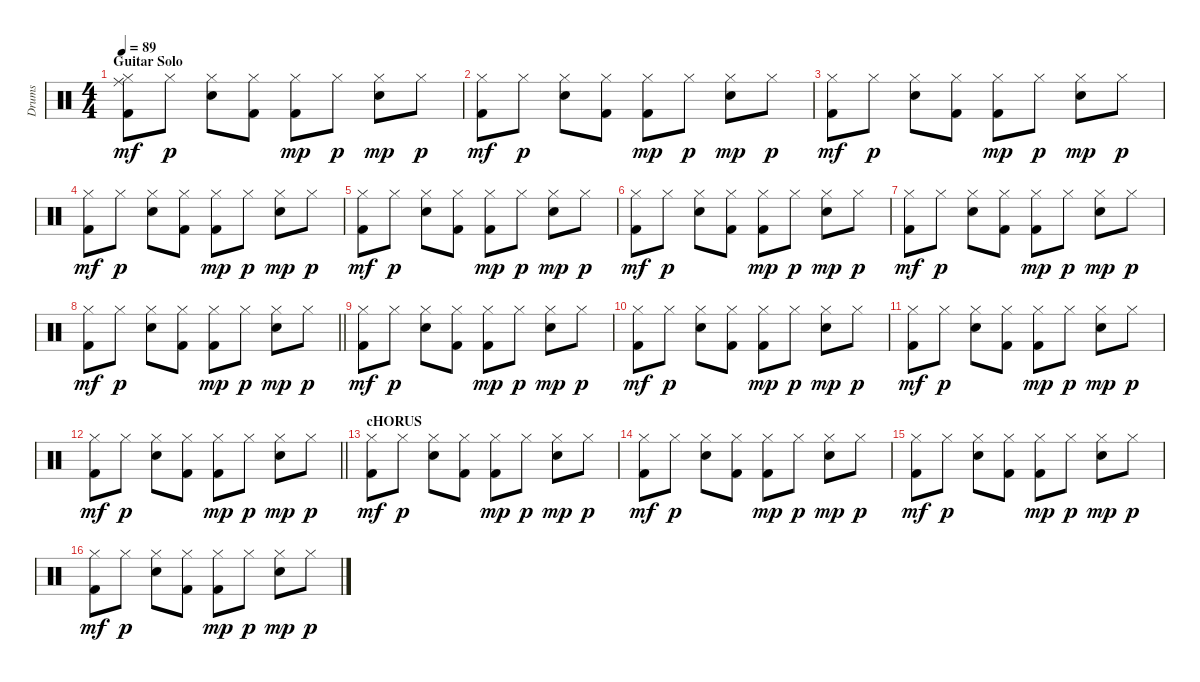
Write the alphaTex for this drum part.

\track ("Drums" "Drums") {instrument percussion}
\staff {score}
\articulation defaults
\ts (4 4)
\section ("" "Guitar Solo")
\tempo 89
\clef neutral
\ks c
("Hi-Hat (closed)" "Kick (hit) 2" "Ride (middle)").8{dy mf} "Hi-Hat (closed)".8{dy p} ("Snare (hit) 2" "Hi-Hat (closed)").8 ("Kick (hit) 2" "Hi-Hat (closed)").8 ("Kick (hit) 2" "Hi-Hat (closed)").8{dy mp} "Hi-Hat (closed)".8{dy p} ("Snare (hit) 2" "Hi-Hat (closed)").8{dy mp} "Hi-Hat (closed)".8{dy p} |
("Hi-Hat (closed)" "Kick (hit) 2").8{dy mf} "Hi-Hat (closed)".8{dy p} ("Snare (hit) 2" "Hi-Hat (closed)").8 ("Kick (hit) 2" "Hi-Hat (closed)").8 ("Kick (hit) 2" "Hi-Hat (closed)").8{dy mp} "Hi-Hat (closed)".8{dy p} ("Snare (hit) 2" "Hi-Hat (closed)").8{dy mp} "Hi-Hat (closed)".8{dy p} |
("Hi-Hat (closed)" "Kick (hit) 2").8{dy mf} "Hi-Hat (closed)".8{dy p} ("Snare (hit) 2" "Hi-Hat (closed)").8 ("Kick (hit) 2" "Hi-Hat (closed)").8 ("Kick (hit) 2" "Hi-Hat (closed)").8{dy mp} "Hi-Hat (closed)".8{dy p} ("Snare (hit) 2" "Hi-Hat (closed)").8{dy mp} "Hi-Hat (closed)".8{dy p} |
("Hi-Hat (closed)" "Kick (hit) 2").8{dy mf} "Hi-Hat (closed)".8{dy p} ("Snare (hit) 2" "Hi-Hat (closed)").8 ("Kick (hit) 2" "Hi-Hat (closed)").8 ("Kick (hit) 2" "Hi-Hat (closed)").8{dy mp} "Hi-Hat (closed)".8{dy p} ("Snare (hit) 2" "Hi-Hat (closed)").8{dy mp} "Hi-Hat (closed)".8{dy p} |
("Hi-Hat (closed)" "Kick (hit) 2").8{dy mf} "Hi-Hat (closed)".8{dy p} ("Snare (hit) 2" "Hi-Hat (closed)").8 ("Kick (hit) 2" "Hi-Hat (closed)").8 ("Kick (hit) 2" "Hi-Hat (closed)").8{dy mp} "Hi-Hat (closed)".8{dy p} ("Snare (hit) 2" "Hi-Hat (closed)").8{dy mp} "Hi-Hat (closed)".8{dy p} |
("Hi-Hat (closed)" "Kick (hit) 2").8{dy mf} "Hi-Hat (closed)".8{dy p} ("Snare (hit) 2" "Hi-Hat (closed)").8 ("Kick (hit) 2" "Hi-Hat (closed)").8 ("Kick (hit) 2" "Hi-Hat (closed)").8{dy mp} "Hi-Hat (closed)".8{dy p} ("Snare (hit) 2" "Hi-Hat (closed)").8{dy mp} "Hi-Hat (closed)".8{dy p} |
("Hi-Hat (closed)" "Kick (hit) 2").8{dy mf} "Hi-Hat (closed)".8{dy p} ("Snare (hit) 2" "Hi-Hat (closed)").8 ("Kick (hit) 2" "Hi-Hat (closed)").8 ("Kick (hit) 2" "Hi-Hat (closed)").8{dy mp} "Hi-Hat (closed)".8{dy p} ("Snare (hit) 2" "Hi-Hat (closed)").8{dy mp} "Hi-Hat (closed)".8{dy p} |
\barLineRight lightlight
("Hi-Hat (closed)" "Kick (hit) 2").8{dy mf} "Hi-Hat (closed)".8{dy p} ("Snare (hit) 2" "Hi-Hat (closed)").8 ("Kick (hit) 2" "Hi-Hat (closed)").8 ("Kick (hit) 2" "Hi-Hat (closed)").8{dy mp} "Hi-Hat (closed)".8{dy p} ("Snare (hit) 2" "Hi-Hat (closed)").8{dy mp} "Hi-Hat (closed)".8{dy p} |
("Hi-Hat (closed)" "Kick (hit) 2").8{dy mf} "Hi-Hat (closed)".8{dy p} ("Snare (hit) 2" "Hi-Hat (closed)").8 ("Kick (hit) 2" "Hi-Hat (closed)").8 ("Kick (hit) 2" "Hi-Hat (closed)").8{dy mp} "Hi-Hat (closed)".8{dy p} ("Snare (hit) 2" "Hi-Hat (closed)").8{dy mp} "Hi-Hat (closed)".8{dy p} |
("Hi-Hat (closed)" "Kick (hit) 2").8{dy mf} "Hi-Hat (closed)".8{dy p} ("Snare (hit) 2" "Hi-Hat (closed)").8 ("Kick (hit) 2" "Hi-Hat (closed)").8 ("Kick (hit) 2" "Hi-Hat (closed)").8{dy mp} "Hi-Hat (closed)".8{dy p} ("Snare (hit) 2" "Hi-Hat (closed)").8{dy mp} "Hi-Hat (closed)".8{dy p} |
("Hi-Hat (closed)" "Kick (hit) 2").8{dy mf} "Hi-Hat (closed)".8{dy p} ("Snare (hit) 2" "Hi-Hat (closed)").8 ("Kick (hit) 2" "Hi-Hat (closed)").8 ("Kick (hit) 2" "Hi-Hat (closed)").8{dy mp} "Hi-Hat (closed)".8{dy p} ("Snare (hit) 2" "Hi-Hat (closed)").8{dy mp} "Hi-Hat (closed)".8{dy p} |
\barLineRight lightlight
("Hi-Hat (closed)" "Kick (hit) 2").8{dy mf} "Hi-Hat (closed)".8{dy p} ("Snare (hit) 2" "Hi-Hat (closed)").8 ("Kick (hit) 2" "Hi-Hat (closed)").8 ("Kick (hit) 2" "Hi-Hat (closed)").8{dy mp} "Hi-Hat (closed)".8{dy p} ("Snare (hit) 2" "Hi-Hat (closed)").8{dy mp} "Hi-Hat (closed)".8{dy p} |
\section ("" "cHORUS")
("Hi-Hat (closed)" "Kick (hit) 2").8{dy mf} "Hi-Hat (closed)".8{dy p} ("Snare (hit) 2" "Hi-Hat (closed)").8 ("Kick (hit) 2" "Hi-Hat (closed)").8 ("Kick (hit) 2" "Hi-Hat (closed)").8{dy mp} "Hi-Hat (closed)".8{dy p} ("Snare (hit) 2" "Hi-Hat (closed)").8{dy mp} "Hi-Hat (closed)".8{dy p} |
("Hi-Hat (closed)" "Kick (hit) 2").8{dy mf} "Hi-Hat (closed)".8{dy p} ("Snare (hit) 2" "Hi-Hat (closed)").8 ("Kick (hit) 2" "Hi-Hat (closed)").8 ("Kick (hit) 2" "Hi-Hat (closed)").8{dy mp} "Hi-Hat (closed)".8{dy p} ("Snare (hit) 2" "Hi-Hat (closed)").8{dy mp} "Hi-Hat (closed)".8{dy p} |
("Hi-Hat (closed)" "Kick (hit) 2").8{dy mf} "Hi-Hat (closed)".8{dy p} ("Snare (hit) 2" "Hi-Hat (closed)").8 ("Kick (hit) 2" "Hi-Hat (closed)").8 ("Kick (hit) 2" "Hi-Hat (closed)").8{dy mp} "Hi-Hat (closed)".8{dy p} ("Snare (hit) 2" "Hi-Hat (closed)").8{dy mp} "Hi-Hat (closed)".8{dy p} |
("Hi-Hat (closed)" "Kick (hit) 2").8{dy mf} "Hi-Hat (closed)".8{dy p} ("Snare (hit) 2" "Hi-Hat (closed)").8 ("Kick (hit) 2" "Hi-Hat (closed)").8 ("Kick (hit) 2" "Hi-Hat (closed)").8{dy mp} "Hi-Hat (closed)".8{dy p} ("Snare (hit) 2" "Hi-Hat (closed)").8{dy mp} "Hi-Hat (closed)".8{dy p}
